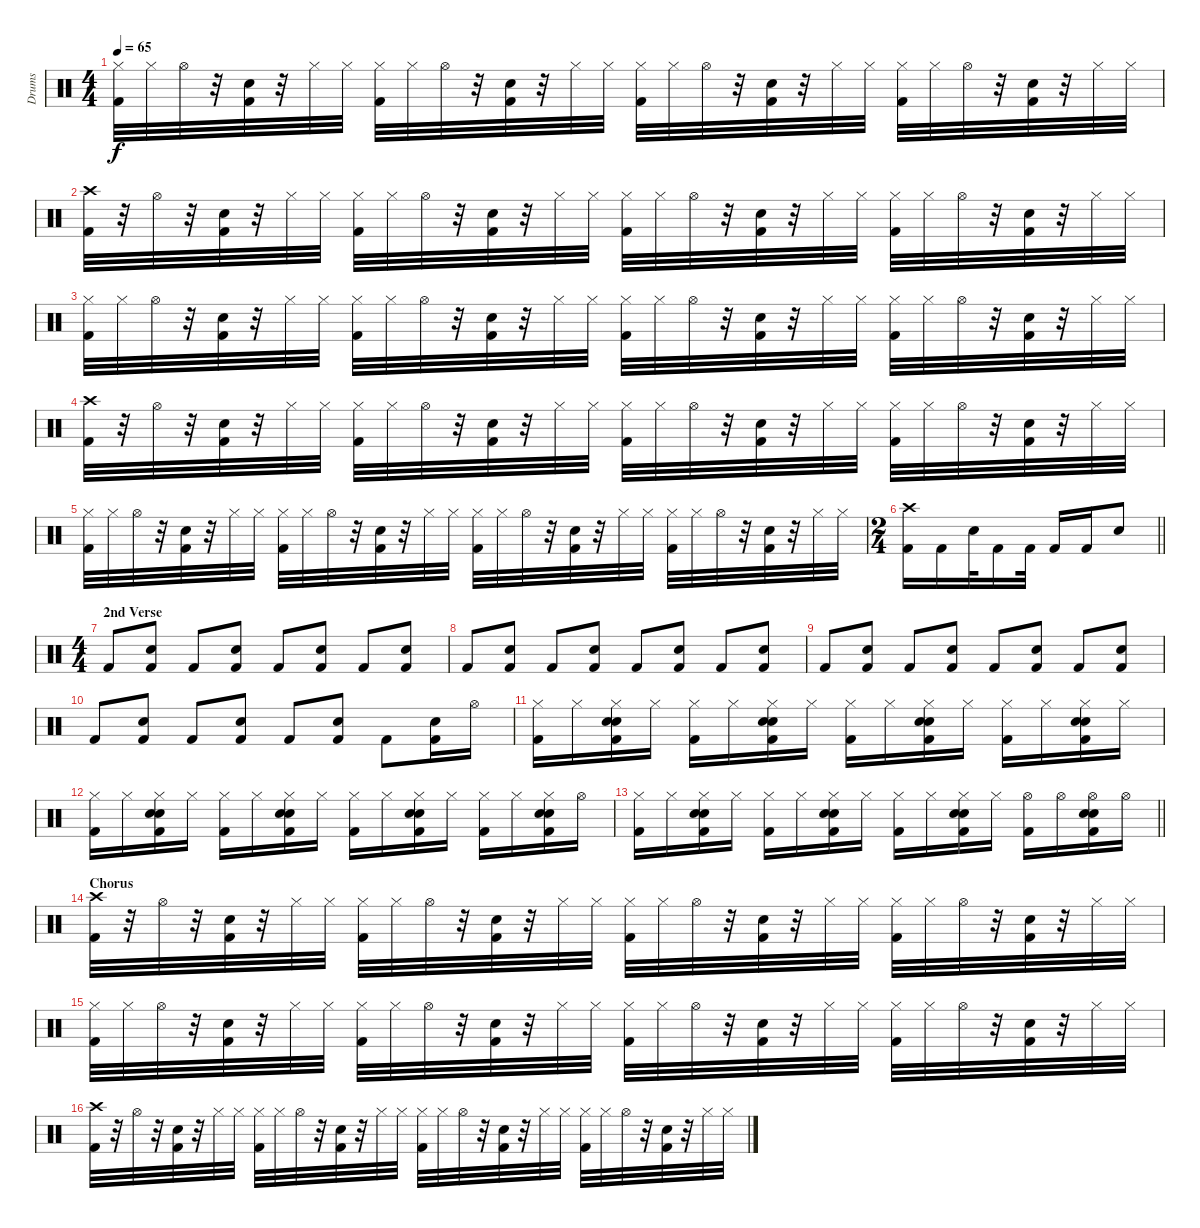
\track ("Drums" "Drums") {instrument percussion}
\staff {score}
\articulation defaults
\ts (4 4)
\tempo 65
\clef neutral
\ks c
("Hi-Hat (closed)" "Kick (hit) 2").32{dy f} "Hi-Hat (closed)".32 "Hi-Hat (open)".32 r.32 ("Snare (hit) 2" "Kick (hit) 2").32 r.32 "Hi-Hat (closed)".32 "Hi-Hat (closed)".32 ("Hi-Hat (closed)" "Kick (hit) 2").32 "Hi-Hat (closed)".32 "Hi-Hat (open)".32 r.32 ("Snare (hit) 2" "Kick (hit) 2").32 r.32 "Hi-Hat (closed)".32 "Hi-Hat (closed)".32 ("Hi-Hat (closed)" "Kick (hit) 2").32 "Hi-Hat (closed)".32 "Hi-Hat (open)".32 r.32 ("Snare (hit) 2" "Kick (hit) 2").32 r.32 "Hi-Hat (closed)".32 "Hi-Hat (closed)".32 ("Hi-Hat (closed)" "Kick (hit) 2").32 "Hi-Hat (closed)".32 "Hi-Hat (open)".32 r.32 ("Snare (hit) 2" "Kick (hit) 2").32 r.32 "Hi-Hat (closed)".32 "Hi-Hat (closed)".32 |
("Crash high (hit)" "Kick (hit) 2").32 r.32 "Hi-Hat (open)".32 r.32 ("Snare (hit) 2" "Kick (hit) 2").32 r.32 "Hi-Hat (closed)".32 "Hi-Hat (closed)".32 ("Hi-Hat (closed)" "Kick (hit) 2").32 "Hi-Hat (closed)".32 "Hi-Hat (open)".32 r.32 ("Snare (hit) 2" "Kick (hit) 2").32 r.32 "Hi-Hat (closed)".32 "Hi-Hat (closed)".32 ("Hi-Hat (closed)" "Kick (hit) 2").32 "Hi-Hat (closed)".32 "Hi-Hat (open)".32 r.32 ("Snare (hit) 2" "Kick (hit) 2").32 r.32 "Hi-Hat (closed)".32 "Hi-Hat (closed)".32 ("Hi-Hat (closed)" "Kick (hit) 2").32 "Hi-Hat (closed)".32 "Hi-Hat (open)".32 r.32 ("Snare (hit) 2" "Kick (hit) 2").32 r.32 "Hi-Hat (closed)".32 "Hi-Hat (closed)".32 |
("Hi-Hat (closed)" "Kick (hit) 2").32 "Hi-Hat (closed)".32 "Hi-Hat (open)".32 r.32 ("Snare (hit) 2" "Kick (hit) 2").32 r.32 "Hi-Hat (closed)".32 "Hi-Hat (closed)".32 ("Hi-Hat (closed)" "Kick (hit) 2").32 "Hi-Hat (closed)".32 "Hi-Hat (open)".32 r.32 ("Snare (hit) 2" "Kick (hit) 2").32 r.32 "Hi-Hat (closed)".32 "Hi-Hat (closed)".32 ("Hi-Hat (closed)" "Kick (hit) 2").32 "Hi-Hat (closed)".32 "Hi-Hat (open)".32 r.32 ("Snare (hit) 2" "Kick (hit) 2").32 r.32 "Hi-Hat (closed)".32 "Hi-Hat (closed)".32 ("Hi-Hat (closed)" "Kick (hit) 2").32 "Hi-Hat (closed)".32 "Hi-Hat (open)".32 r.32 ("Snare (hit) 2" "Kick (hit) 2").32 r.32 "Hi-Hat (closed)".32 "Hi-Hat (closed)".32 |
("Crash high (hit)" "Kick (hit) 2").32 r.32 "Hi-Hat (open)".32 r.32 ("Snare (hit) 2" "Kick (hit) 2").32 r.32 "Hi-Hat (closed)".32 "Hi-Hat (closed)".32 ("Hi-Hat (closed)" "Kick (hit) 2").32 "Hi-Hat (closed)".32 "Hi-Hat (open)".32 r.32 ("Snare (hit) 2" "Kick (hit) 2").32 r.32 "Hi-Hat (closed)".32 "Hi-Hat (closed)".32 ("Hi-Hat (closed)" "Kick (hit) 2").32 "Hi-Hat (closed)".32 "Hi-Hat (open)".32 r.32 ("Snare (hit) 2" "Kick (hit) 2").32 r.32 "Hi-Hat (closed)".32 "Hi-Hat (closed)".32 ("Hi-Hat (closed)" "Kick (hit) 2").32 "Hi-Hat (closed)".32 "Hi-Hat (open)".32 r.32 ("Snare (hit) 2" "Kick (hit) 2").32 r.32 "Hi-Hat (closed)".32 "Hi-Hat (closed)".32 |
("Hi-Hat (closed)" "Kick (hit) 2").32 "Hi-Hat (closed)".32 "Hi-Hat (open)".32 r.32 ("Snare (hit) 2" "Kick (hit) 2").32 r.32 "Hi-Hat (closed)".32 "Hi-Hat (closed)".32 ("Hi-Hat (closed)" "Kick (hit) 2").32 "Hi-Hat (closed)".32 "Hi-Hat (open)".32 r.32 ("Snare (hit) 2" "Kick (hit) 2").32 r.32 "Hi-Hat (closed)".32 "Hi-Hat (closed)".32 ("Hi-Hat (closed)" "Kick (hit) 2").32 "Hi-Hat (closed)".32 "Hi-Hat (open)".32 r.32 ("Snare (hit) 2" "Kick (hit) 2").32 r.32 "Hi-Hat (closed)".32 "Hi-Hat (closed)".32 ("Hi-Hat (closed)" "Kick (hit) 2").32 "Hi-Hat (closed)".32 "Hi-Hat (open)".32 r.32 ("Snare (hit) 2" "Kick (hit) 2").32 r.32 "Hi-Hat (closed)".32 "Hi-Hat (closed)".32 |
\ts (2 4)
\barLineRight lightlight
("Crash high (hit)" "Kick (hit) 2").16 "Kick (hit) 2".16 "Snare (hit) 2".32 "Kick (hit) 2".16 "Kick (hit) 2".32 "Kick (hit) 2".16 "Kick (hit) 2".16 "Snare (hit) 2".8 |
\ts (4 4)
\section ("" "2nd Verse")
"Kick (hit) 2".8 ("Snare (hit) 2" "Kick (hit) 2").8 "Kick (hit) 2".8 ("Snare (hit) 2" "Kick (hit) 2").8 "Kick (hit) 2".8 ("Snare (hit) 2" "Kick (hit) 2").8 "Kick (hit) 2".8 ("Snare (hit) 2" "Kick (hit) 2").8 |
"Kick (hit) 2".8 ("Snare (hit) 2" "Kick (hit) 2").8 "Kick (hit) 2".8 ("Snare (hit) 2" "Kick (hit) 2").8 "Kick (hit) 2".8 ("Snare (hit) 2" "Kick (hit) 2").8 "Kick (hit) 2".8 ("Snare (hit) 2" "Kick (hit) 2").8 |
"Kick (hit) 2".8 ("Snare (hit) 2" "Kick (hit) 2").8 "Kick (hit) 2".8 ("Snare (hit) 2" "Kick (hit) 2").8 "Kick (hit) 2".8 ("Snare (hit) 2" "Kick (hit) 2").8 "Kick (hit) 2".8 ("Snare (hit) 2" "Kick (hit) 2").8 |
"Kick (hit) 2".8 ("Snare (hit) 2" "Kick (hit) 2").8 "Kick (hit) 2".8 ("Snare (hit) 2" "Kick (hit) 2").8 "Kick (hit) 2".8 ("Snare (hit) 2" "Kick (hit) 2").8 "Kick (hit) 2".8 ("Snare (hit) 2" "Kick (hit) 2").16 "Hi-Hat (open)".16 |
("Hi-Hat (closed)" "Kick (hit) 2").16 "Hi-Hat (closed)".16 ("Hand Clap (hit)" "Hi-Hat (closed)" "Snare (hit) 2" "Kick (hit) 2").16 "Hi-Hat (closed)".16 ("Hi-Hat (closed)" "Kick (hit) 2").16 "Hi-Hat (closed)".16 ("Hand Clap (hit)" "Hi-Hat (closed)" "Snare (hit) 2" "Kick (hit) 2").16 "Hi-Hat (closed)".16 ("Hi-Hat (closed)" "Kick (hit) 2").16 "Hi-Hat (closed)".16 ("Hand Clap (hit)" "Hi-Hat (closed)" "Snare (hit) 2" "Kick (hit) 2").16 "Hi-Hat (closed)".16 ("Hi-Hat (closed)" "Kick (hit) 2").16 "Hi-Hat (closed)".16 ("Hand Clap (hit)" "Hi-Hat (closed)" "Snare (hit) 2" "Kick (hit) 2").16 "Hi-Hat (closed)".16 |
("Hi-Hat (closed)" "Kick (hit) 2").16 "Hi-Hat (closed)".16 ("Hand Clap (hit)" "Hi-Hat (closed)" "Snare (hit) 2" "Kick (hit) 2").16 "Hi-Hat (closed)".16 ("Hi-Hat (closed)" "Kick (hit) 2").16 "Hi-Hat (closed)".16 ("Hand Clap (hit)" "Hi-Hat (closed)" "Snare (hit) 2" "Kick (hit) 2").16 "Hi-Hat (closed)".16 ("Hi-Hat (closed)" "Kick (hit) 2").16 "Hi-Hat (closed)".16 ("Hand Clap (hit)" "Hi-Hat (closed)" "Snare (hit) 2" "Kick (hit) 2").16 "Hi-Hat (closed)".16 ("Hi-Hat (closed)" "Kick (hit) 2").16 "Hi-Hat (closed)".16 ("Hand Clap (hit)" "Hi-Hat (closed)" "Snare (hit) 2" "Kick (hit) 2").16 "Hi-Hat (open)".16 |
\barLineRight lightlight
("Hi-Hat (closed)" "Kick (hit) 2").16 "Hi-Hat (closed)".16 ("Hand Clap (hit)" "Hi-Hat (closed)" "Snare (hit) 2" "Kick (hit) 2").16 "Hi-Hat (closed)".16 ("Hi-Hat (closed)" "Kick (hit) 2").16 "Hi-Hat (closed)".16 ("Hand Clap (hit)" "Hi-Hat (closed)" "Snare (hit) 2" "Kick (hit) 2").16 "Hi-Hat (closed)".16 ("Hi-Hat (closed)" "Kick (hit) 2").16 "Hi-Hat (closed)".16 ("Hand Clap (hit)" "Hi-Hat (closed)" "Snare (hit) 2" "Kick (hit) 2").16 "Hi-Hat (closed)".16 ("Hi-Hat (open)" "Kick (hit) 2").16 "Hi-Hat (open)".16 ("Hand Clap (hit)" "Hi-Hat (open)" "Snare (hit) 2" "Kick (hit) 2").16 "Hi-Hat (open)".16 |
\section ("" "Chorus")
("Crash high (hit)" "Kick (hit) 2").32 r.32 "Hi-Hat (open)".32 r.32 ("Snare (hit) 2" "Kick (hit) 2").32 r.32 "Hi-Hat (closed)".32 "Hi-Hat (closed)".32 ("Hi-Hat (closed)" "Kick (hit) 2").32 "Hi-Hat (closed)".32 "Hi-Hat (open)".32 r.32 ("Snare (hit) 2" "Kick (hit) 2").32 r.32 "Hi-Hat (closed)".32 "Hi-Hat (closed)".32 ("Hi-Hat (closed)" "Kick (hit) 2").32 "Hi-Hat (closed)".32 "Hi-Hat (open)".32 r.32 ("Snare (hit) 2" "Kick (hit) 2").32 r.32 "Hi-Hat (closed)".32 "Hi-Hat (closed)".32 ("Hi-Hat (closed)" "Kick (hit) 2").32 "Hi-Hat (closed)".32 "Hi-Hat (open)".32 r.32 ("Snare (hit) 2" "Kick (hit) 2").32 r.32 "Hi-Hat (closed)".32 "Hi-Hat (closed)".32 |
("Hi-Hat (closed)" "Kick (hit) 2").32 "Hi-Hat (closed)".32 "Hi-Hat (open)".32 r.32 ("Snare (hit) 2" "Kick (hit) 2").32 r.32 "Hi-Hat (closed)".32 "Hi-Hat (closed)".32 ("Hi-Hat (closed)" "Kick (hit) 2").32 "Hi-Hat (closed)".32 "Hi-Hat (open)".32 r.32 ("Snare (hit) 2" "Kick (hit) 2").32 r.32 "Hi-Hat (closed)".32 "Hi-Hat (closed)".32 ("Hi-Hat (closed)" "Kick (hit) 2").32 "Hi-Hat (closed)".32 "Hi-Hat (open)".32 r.32 ("Snare (hit) 2" "Kick (hit) 2").32 r.32 "Hi-Hat (closed)".32 "Hi-Hat (closed)".32 ("Hi-Hat (closed)" "Kick (hit) 2").32 "Hi-Hat (closed)".32 "Hi-Hat (open)".32 r.32 ("Snare (hit) 2" "Kick (hit) 2").32 r.32 "Hi-Hat (closed)".32 "Hi-Hat (closed)".32 |
("Crash high (hit)" "Kick (hit) 2").32 r.32 "Hi-Hat (open)".32 r.32 ("Snare (hit) 2" "Kick (hit) 2").32 r.32 "Hi-Hat (closed)".32 "Hi-Hat (closed)".32 ("Hi-Hat (closed)" "Kick (hit) 2").32 "Hi-Hat (closed)".32 "Hi-Hat (open)".32 r.32 ("Snare (hit) 2" "Kick (hit) 2").32 r.32 "Hi-Hat (closed)".32 "Hi-Hat (closed)".32 ("Hi-Hat (closed)" "Kick (hit) 2").32 "Hi-Hat (closed)".32 "Hi-Hat (open)".32 r.32 ("Snare (hit) 2" "Kick (hit) 2").32 r.32 "Hi-Hat (closed)".32 "Hi-Hat (closed)".32 ("Hi-Hat (closed)" "Kick (hit) 2").32 "Hi-Hat (closed)".32 "Hi-Hat (open)".32 r.32 ("Snare (hit) 2" "Kick (hit) 2").32 r.32 "Hi-Hat (closed)".32 "Hi-Hat (closed)".32
